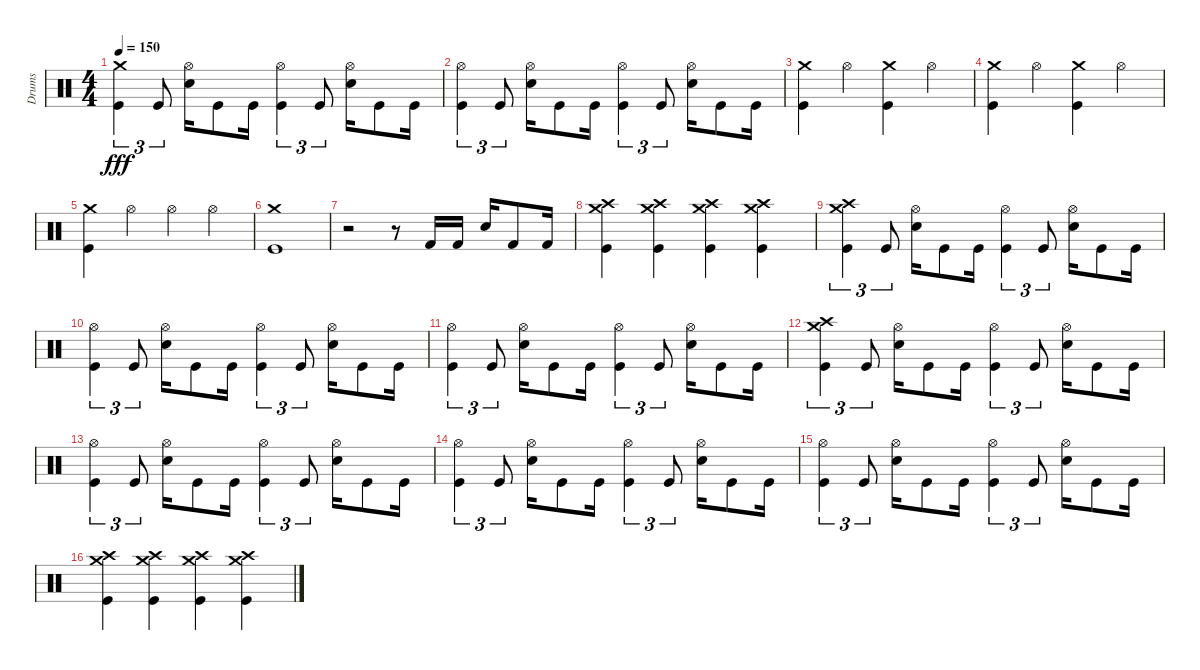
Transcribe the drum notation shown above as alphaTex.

\track ("Drums" "Drums") {instrument percussion}
\staff {score}
\articulation defaults
\ts (4 4)
\tempo 150
\clef neutral
\ks c
("Crash medium (hit)" "Kick (hit)").4{tu (3 2) dy fff} "Kick (hit)".8{tu (3 2)} ("Hi-Hat (open)" "Snare (hit) 2").16 "Kick (hit)".8 "Kick (hit)".16 ("Hi-Hat (open)" "Kick (hit)").4{tu (3 2)} "Kick (hit)".8{tu (3 2)} ("Hi-Hat (open)" "Snare (hit) 2").16 "Kick (hit)".8 "Kick (hit)".16 |
("Hi-Hat (open)" "Kick (hit)").4{tu (3 2)} "Kick (hit)".8{tu (3 2)} ("Hi-Hat (open)" "Snare (hit) 2").16 "Kick (hit)".8 "Kick (hit)".16 ("Hi-Hat (open)" "Kick (hit)").4{tu (3 2)} "Kick (hit)".8{tu (3 2)} ("Hi-Hat (open)" "Snare (hit) 2").16 "Kick (hit)".8 "Kick (hit)".16 |
("Crash medium (hit)" "Kick (hit)").4 "Hi-Hat (open)".4 ("Crash medium (hit)" "Kick (hit)").4 "Hi-Hat (open)".4 |
("Crash medium (hit)" "Kick (hit)").4 "Hi-Hat (open)".4 ("Crash medium (hit)" "Kick (hit)").4 "Hi-Hat (open)".4 |
("Crash medium (hit)" "Kick (hit)").4 "Hi-Hat (open)".4 "Hi-Hat (open)".4 "Hi-Hat (open)".4 |
("Crash medium (hit)" "Kick (hit)").1 |
r.2 r.8 "Kick (hit) 2".16 "Kick (hit) 2".16 "Snare (hit) 2".16 "Kick (hit) 2".8 "Kick (hit) 2".16 |
("Crash medium (hit)" "Crash high (hit)" "Kick (hit)").4 ("Crash medium (hit)" "Crash high (hit)" "Kick (hit)").4 ("Crash medium (hit)" "Crash high (hit)" "Kick (hit)").4 ("Crash medium (hit)" "Crash high (hit)" "Kick (hit)").4 |
("Crash medium (hit)" "Crash high (hit)" "Kick (hit)").4{tu (3 2)} "Kick (hit)".8{tu (3 2)} ("Hi-Hat (open)" "Snare (hit) 2").16 "Kick (hit)".8 "Kick (hit)".16 ("Hi-Hat (open)" "Kick (hit)").4{tu (3 2)} "Kick (hit)".8{tu (3 2)} ("Hi-Hat (open)" "Snare (hit) 2").16 "Kick (hit)".8 "Kick (hit)".16 |
("Hi-Hat (open)" "Kick (hit)").4{tu (3 2)} "Kick (hit)".8{tu (3 2)} ("Hi-Hat (open)" "Snare (hit) 2").16 "Kick (hit)".8 "Kick (hit)".16 ("Hi-Hat (open)" "Kick (hit)").4{tu (3 2)} "Kick (hit)".8{tu (3 2)} ("Hi-Hat (open)" "Snare (hit) 2").16 "Kick (hit)".8 "Kick (hit)".16 |
("Hi-Hat (open)" "Kick (hit)").4{tu (3 2)} "Kick (hit)".8{tu (3 2)} ("Hi-Hat (open)" "Snare (hit) 2").16 "Kick (hit)".8 "Kick (hit)".16 ("Hi-Hat (open)" "Kick (hit)").4{tu (3 2)} "Kick (hit)".8{tu (3 2)} ("Hi-Hat (open)" "Snare (hit) 2").16 "Kick (hit)".8 "Kick (hit)".16 |
("Crash medium (hit)" "Crash high (hit)" "Kick (hit)").4{tu (3 2)} "Kick (hit)".8{tu (3 2)} ("Hi-Hat (open)" "Snare (hit) 2").16 "Kick (hit)".8 "Kick (hit)".16 ("Hi-Hat (open)" "Kick (hit)").4{tu (3 2)} "Kick (hit)".8{tu (3 2)} ("Hi-Hat (open)" "Snare (hit) 2").16 "Kick (hit)".8 "Kick (hit)".16 |
("Hi-Hat (open)" "Kick (hit)").4{tu (3 2)} "Kick (hit)".8{tu (3 2)} ("Hi-Hat (open)" "Snare (hit) 2").16 "Kick (hit)".8 "Kick (hit)".16 ("Hi-Hat (open)" "Kick (hit)").4{tu (3 2)} "Kick (hit)".8{tu (3 2)} ("Hi-Hat (open)" "Snare (hit) 2").16 "Kick (hit)".8 "Kick (hit)".16 |
("Hi-Hat (open)" "Kick (hit)").4{tu (3 2)} "Kick (hit)".8{tu (3 2)} ("Hi-Hat (open)" "Snare (hit) 2").16 "Kick (hit)".8 "Kick (hit)".16 ("Hi-Hat (open)" "Kick (hit)").4{tu (3 2)} "Kick (hit)".8{tu (3 2)} ("Hi-Hat (open)" "Snare (hit) 2").16 "Kick (hit)".8 "Kick (hit)".16 |
("Hi-Hat (open)" "Kick (hit)").4{tu (3 2)} "Kick (hit)".8{tu (3 2)} ("Hi-Hat (open)" "Snare (hit) 2").16 "Kick (hit)".8 "Kick (hit)".16 ("Hi-Hat (open)" "Kick (hit)").4{tu (3 2)} "Kick (hit)".8{tu (3 2)} ("Hi-Hat (open)" "Snare (hit) 2").16 "Kick (hit)".8 "Kick (hit)".16 |
("Crash medium (hit)" "Crash high (hit)" "Kick (hit)").4 ("Crash medium (hit)" "Crash high (hit)" "Kick (hit)").4 ("Crash medium (hit)" "Crash high (hit)" "Kick (hit)").4 ("Crash medium (hit)" "Crash high (hit)" "Kick (hit)").4
